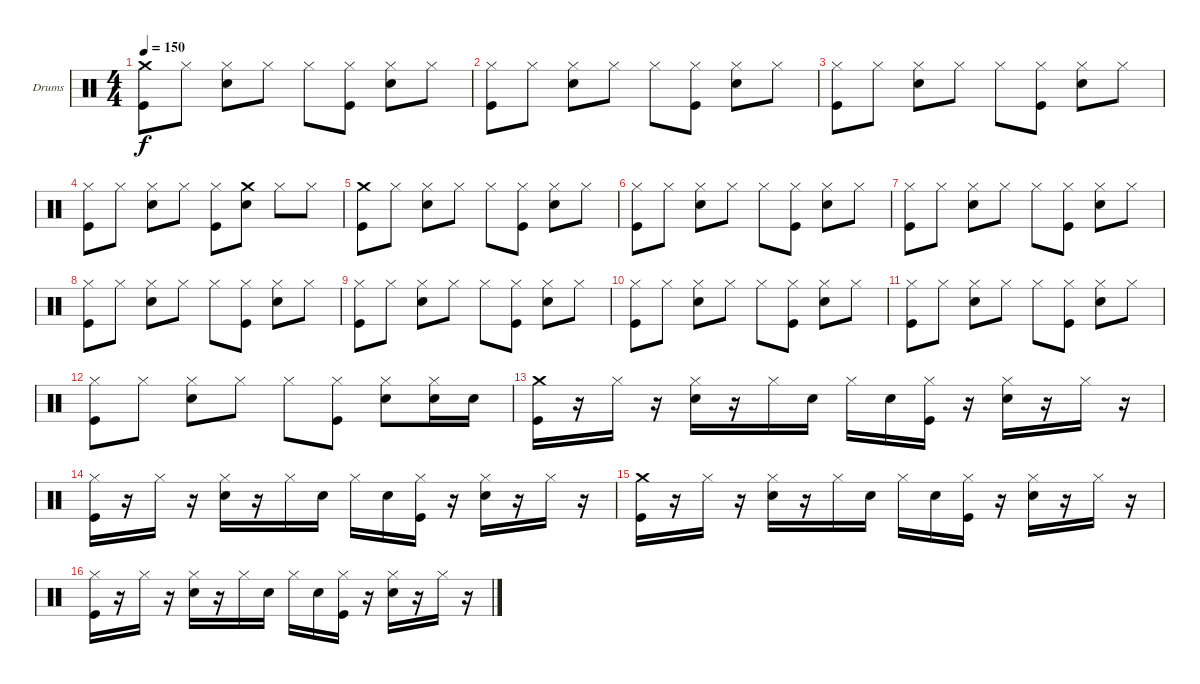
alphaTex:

\defaultSystemsLayout 4
\bracketExtendMode groupsimilarinstruments
\firstSystemTrackNameOrientation horizontal
\otherSystemsTrackNameOrientation horizontal
\track ("Drumkit" "Drums") {instrument percussion}
\staff {score}
\articulation defaults
\ts (4 4)
\tempo 150
\clef neutral
\ks c
("Kick (hit)" "Crash medium (hit)").8{dy f} "Hi-Hat (closed)".8 ("Snare (hit) 2" "Hi-Hat (closed)").8 "Hi-Hat (closed)".8 "Hi-Hat (closed)".8 ("Kick (hit)" "Hi-Hat (closed)").8 ("Snare (hit) 2" "Hi-Hat (closed)").8 "Hi-Hat (closed)".8 |
("Kick (hit)" "Hi-Hat (closed)").8 "Hi-Hat (closed)".8 ("Snare (hit) 2" "Hi-Hat (closed)").8 "Hi-Hat (closed)".8 "Hi-Hat (closed)".8 ("Kick (hit)" "Hi-Hat (closed)").8 ("Snare (hit) 2" "Hi-Hat (closed)").8 "Hi-Hat (closed)".8 |
("Kick (hit)" "Hi-Hat (closed)").8 "Hi-Hat (closed)".8 ("Snare (hit) 2" "Hi-Hat (closed)").8 "Hi-Hat (closed)".8 "Hi-Hat (closed)".8 ("Kick (hit)" "Hi-Hat (closed)").8 ("Snare (hit) 2" "Hi-Hat (closed)").8 "Hi-Hat (closed)".8 |
("Kick (hit)" "Hi-Hat (closed)").8 "Hi-Hat (closed)".8 ("Snare (hit) 2" "Hi-Hat (closed)").8 "Hi-Hat (closed)".8 ("Kick (hit)" "Hi-Hat (closed)").8 ("Snare (hit) 2" "Crash medium (hit)").8 "Hi-Hat (closed)".8 "Hi-Hat (closed)".8 |
("Kick (hit)" "Crash medium (hit)").8 "Hi-Hat (closed)".8 ("Snare (hit) 2" "Hi-Hat (closed)").8 "Hi-Hat (closed)".8 "Hi-Hat (closed)".8 ("Kick (hit)" "Hi-Hat (closed)").8 ("Snare (hit) 2" "Hi-Hat (closed)").8 "Hi-Hat (closed)".8 |
("Kick (hit)" "Hi-Hat (closed)").8 "Hi-Hat (closed)".8 ("Snare (hit) 2" "Hi-Hat (closed)").8 "Hi-Hat (closed)".8 "Hi-Hat (closed)".8 ("Kick (hit)" "Hi-Hat (closed)").8 ("Snare (hit) 2" "Hi-Hat (closed)").8 "Hi-Hat (closed)".8 |
("Kick (hit)" "Hi-Hat (closed)").8 "Hi-Hat (closed)".8 ("Snare (hit) 2" "Hi-Hat (closed)").8 "Hi-Hat (closed)".8 "Hi-Hat (closed)".8 ("Kick (hit)" "Hi-Hat (closed)").8 ("Snare (hit) 2" "Hi-Hat (closed)").8 "Hi-Hat (closed)".8 |
("Kick (hit)" "Hi-Hat (closed)").8 "Hi-Hat (closed)".8 ("Snare (hit) 2" "Hi-Hat (closed)").8 "Hi-Hat (closed)".8 "Hi-Hat (closed)".8 ("Kick (hit)" "Hi-Hat (closed)").8 ("Snare (hit) 2" "Hi-Hat (closed)").8 "Hi-Hat (closed)".8 |
("Kick (hit)" "Hi-Hat (closed)").8 "Hi-Hat (closed)".8 ("Snare (hit) 2" "Hi-Hat (closed)").8 "Hi-Hat (closed)".8 "Hi-Hat (closed)".8 ("Kick (hit)" "Hi-Hat (closed)").8 ("Snare (hit) 2" "Hi-Hat (closed)").8 "Hi-Hat (closed)".8 |
("Kick (hit)" "Hi-Hat (closed)").8 "Hi-Hat (closed)".8 ("Snare (hit) 2" "Hi-Hat (closed)").8 "Hi-Hat (closed)".8 "Hi-Hat (closed)".8 ("Kick (hit)" "Hi-Hat (closed)").8 ("Snare (hit) 2" "Hi-Hat (closed)").8 "Hi-Hat (closed)".8 |
("Kick (hit)" "Hi-Hat (closed)").8 "Hi-Hat (closed)".8 ("Snare (hit) 2" "Hi-Hat (closed)").8 "Hi-Hat (closed)".8 "Hi-Hat (closed)".8 ("Kick (hit)" "Hi-Hat (closed)").8 ("Snare (hit) 2" "Hi-Hat (closed)").8 "Hi-Hat (closed)".8 |
("Kick (hit)" "Hi-Hat (closed)").8 "Hi-Hat (closed)".8 ("Snare (hit) 2" "Hi-Hat (closed)").8 "Hi-Hat (closed)".8 "Hi-Hat (closed)".8 ("Kick (hit)" "Hi-Hat (closed)").8 ("Snare (hit) 2" "Hi-Hat (closed)").8 ("Snare (hit) 2" "Hi-Hat (closed)").16 "Snare (hit) 2".16 |
("Kick (hit)" "Crash medium (hit)").16 r.16 "Hi-Hat (closed)".16 r.16 ("Snare (hit) 2" "Hi-Hat (closed)").16 r.16 "Hi-Hat (closed)".16 "Snare (hit) 2".16 "Hi-Hat (closed)".16 "Snare (hit) 2".16 ("Kick (hit)" "Hi-Hat (closed)").16 r.16 ("Snare (hit) 2" "Hi-Hat (closed)").16 r.16 "Hi-Hat (closed)".16 r.16 |
("Kick (hit)" "Hi-Hat (closed)").16 r.16 "Hi-Hat (closed)".16 r.16 ("Snare (hit) 2" "Hi-Hat (closed)").16 r.16 "Hi-Hat (closed)".16 "Snare (hit) 2".16 "Hi-Hat (closed)".16 "Snare (hit) 2".16 ("Kick (hit)" "Hi-Hat (closed)").16 r.16 ("Snare (hit) 2" "Hi-Hat (closed)").16 r.16 "Hi-Hat (closed)".16 r.16 |
("Kick (hit)" "Crash medium (hit)").16 r.16 "Hi-Hat (closed)".16 r.16 ("Snare (hit) 2" "Hi-Hat (closed)").16 r.16 "Hi-Hat (closed)".16 "Snare (hit) 2".16 "Hi-Hat (closed)".16 "Snare (hit) 2".16 ("Kick (hit)" "Hi-Hat (closed)").16 r.16 ("Snare (hit) 2" "Hi-Hat (closed)").16 r.16 "Hi-Hat (closed)".16 r.16 |
("Kick (hit)" "Hi-Hat (closed)").16 r.16 "Hi-Hat (closed)".16 r.16 ("Snare (hit) 2" "Hi-Hat (closed)").16 r.16 "Hi-Hat (closed)".16 "Snare (hit) 2".16 "Hi-Hat (closed)".16 "Snare (hit) 2".16 ("Kick (hit)" "Hi-Hat (closed)").16 r.16 ("Snare (hit) 2" "Hi-Hat (closed)").16 r.16 "Hi-Hat (closed)".16 r.16
